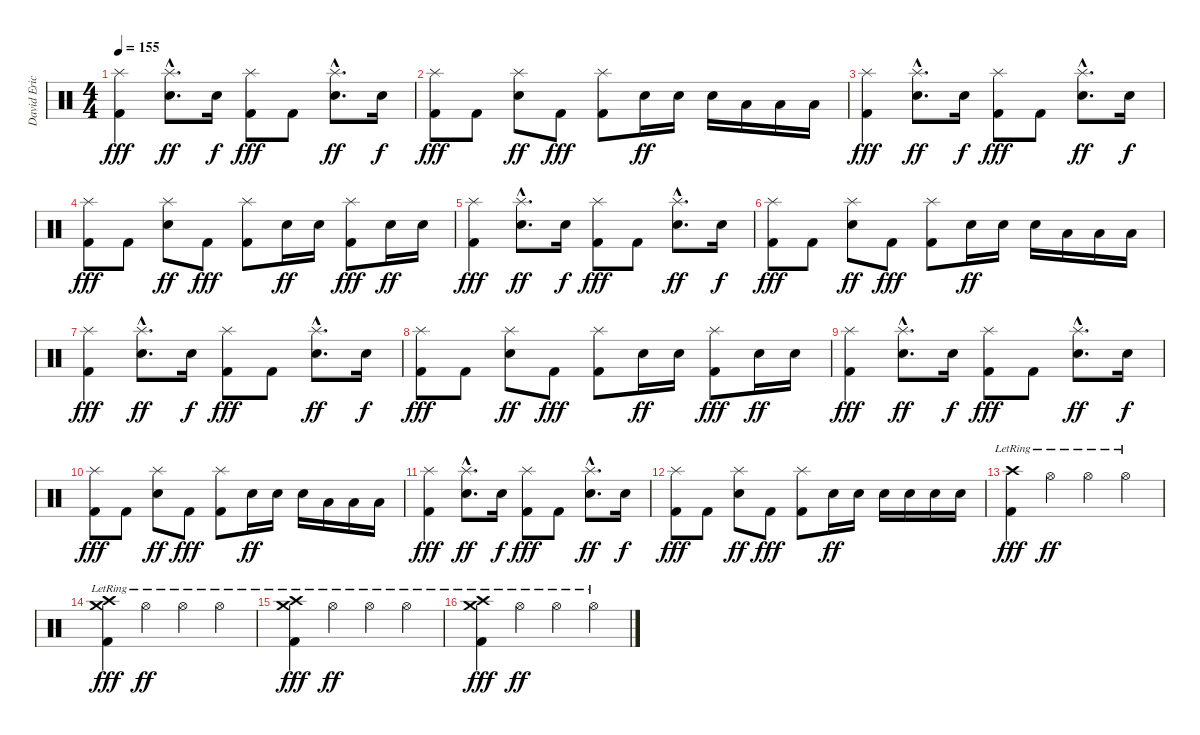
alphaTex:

\track ("David Eric Grohl" "David Eric") {instrument percussion}
\staff {score}
\articulation defaults
\ts (4 4)
\tempo 155
\clef neutral
\ks c
("Splash (hit)" "Kick (hit) 2").4{dy fff} ("Splash (hit)"{hac} "Electric Snare (hit)"{hac}).8{d dy ff} "Electric Snare (hit)".16{dy f} ("Splash (hit)" "Kick (hit) 2").8{dy fff} "Kick (hit) 2".8 ("Splash (hit)"{hac} "Electric Snare (hit)"{hac}).8{d dy ff} "Electric Snare (hit)".16{dy f} |
("Splash (hit)" "Kick (hit) 2").8{dy fff} "Kick (hit) 2".8 ("Splash (hit)" "Electric Snare (hit)").8{dy ff} "Kick (hit) 2".8{dy fff} ("Splash (hit)" "Kick (hit) 2").8 "Electric Snare (hit)".16{dy ff} "Electric Snare (hit)".16 "Electric Snare (hit)".16 "Low Tom (hit)".16 "Low Tom (hit)".16 "Low Tom (hit)".16 |
("Splash (hit)" "Kick (hit) 2").4{dy fff} ("Splash (hit)"{hac} "Electric Snare (hit)"{hac}).8{d dy ff} "Electric Snare (hit)".16{dy f} ("Splash (hit)" "Kick (hit) 2").8{dy fff} "Kick (hit) 2".8 ("Splash (hit)"{hac} "Electric Snare (hit)"{hac}).8{d dy ff} "Electric Snare (hit)".16{dy f} |
("Splash (hit)" "Kick (hit) 2").8{dy fff} "Kick (hit) 2".8 ("Splash (hit)" "Electric Snare (hit)").8{dy ff} "Kick (hit) 2".8{dy fff} ("Splash (hit)" "Kick (hit) 2").8 "Electric Snare (hit)".16{dy ff} "Electric Snare (hit)".16 ("Splash (hit)" "Kick (hit) 2").8{dy fff} "Electric Snare (hit)".16{dy ff} "Electric Snare (hit)".16 |
("Splash (hit)" "Kick (hit) 2").4{dy fff} ("Splash (hit)"{hac} "Electric Snare (hit)"{hac}).8{d dy ff} "Electric Snare (hit)".16{dy f} ("Splash (hit)" "Kick (hit) 2").8{dy fff} "Kick (hit) 2".8 ("Splash (hit)"{hac} "Electric Snare (hit)"{hac}).8{d dy ff} "Electric Snare (hit)".16{dy f} |
("Splash (hit)" "Kick (hit) 2").8{dy fff} "Kick (hit) 2".8 ("Splash (hit)" "Electric Snare (hit)").8{dy ff} "Kick (hit) 2".8{dy fff} ("Splash (hit)" "Kick (hit) 2").8 "Electric Snare (hit)".16{dy ff} "Electric Snare (hit)".16 "Electric Snare (hit)".16 "Low Tom (hit)".16 "Low Tom (hit)".16 "Low Tom (hit)".16 |
("Splash (hit)" "Kick (hit) 2").4{dy fff} ("Splash (hit)"{hac} "Electric Snare (hit)"{hac}).8{d dy ff} "Electric Snare (hit)".16{dy f} ("Splash (hit)" "Kick (hit) 2").8{dy fff} "Kick (hit) 2".8 ("Splash (hit)"{hac} "Electric Snare (hit)"{hac}).8{d dy ff} "Electric Snare (hit)".16{dy f} |
("Splash (hit)" "Kick (hit) 2").8{dy fff} "Kick (hit) 2".8 ("Splash (hit)" "Electric Snare (hit)").8{dy ff} "Kick (hit) 2".8{dy fff} ("Splash (hit)" "Kick (hit) 2").8 "Electric Snare (hit)".16{dy ff} "Electric Snare (hit)".16 ("Splash (hit)" "Kick (hit) 2").8{dy fff} "Electric Snare (hit)".16{dy ff} "Electric Snare (hit)".16 |
("Splash (hit)" "Kick (hit) 2").4{dy fff} ("Splash (hit)"{hac} "Electric Snare (hit)"{hac}).8{d dy ff} "Electric Snare (hit)".16{dy f} ("Splash (hit)" "Kick (hit) 2").8{dy fff} "Kick (hit) 2".8 ("Splash (hit)"{hac} "Electric Snare (hit)"{hac}).8{d dy ff} "Electric Snare (hit)".16{dy f} |
("Splash (hit)" "Kick (hit) 2").8{dy fff} "Kick (hit) 2".8 ("Splash (hit)" "Electric Snare (hit)").8{dy ff} "Kick (hit) 2".8{dy fff} ("Splash (hit)" "Kick (hit) 2").8 "Electric Snare (hit)".16{dy ff} "Electric Snare (hit)".16 "Electric Snare (hit)".16 "Low Tom (hit)".16 "Low Tom (hit)".16 "Low Tom (hit)".16 |
("Splash (hit)" "Kick (hit) 2").4{dy fff} ("Splash (hit)"{hac} "Electric Snare (hit)"{hac}).8{d dy ff} "Electric Snare (hit)".16{dy f} ("Splash (hit)" "Kick (hit) 2").8{dy fff} "Kick (hit) 2".8 ("Splash (hit)"{hac} "Electric Snare (hit)"{hac}).8{d dy ff} "Electric Snare (hit)".16{dy f} |
("Splash (hit)" "Kick (hit) 2").8{dy fff} "Kick (hit) 2".8 ("Splash (hit)" "Electric Snare (hit)").8{dy ff} "Kick (hit) 2".8{dy fff} ("Splash (hit)" "Kick (hit) 2").8 "Electric Snare (hit)".16{dy ff} "Electric Snare (hit)".16 "Electric Snare (hit)".16 "Electric Snare (hit)".16 "Electric Snare (hit)".16 "Electric Snare (hit)".16 |
("Crash high (hit)"{lr} "Kick (hit) 2").4{dy fff} "Hi-Hat (open)"{lr}.4{dy ff} "Hi-Hat (open)"{lr}.4 "Hi-Hat (open)"{lr}.4 |
("Crash medium (hit)"{lr} "Crash high (hit)"{lr} "Kick (hit) 2").4{dy fff} "Hi-Hat (open)"{lr}.4{dy ff} "Hi-Hat (open)"{lr}.4 "Hi-Hat (open)"{lr}.4 |
("Crash medium (hit)"{lr} "Crash high (hit)"{lr} "Kick (hit) 2").4{dy fff} "Hi-Hat (open)"{lr}.4{dy ff} "Hi-Hat (open)"{lr}.4 "Hi-Hat (open)"{lr}.4 |
("Crash medium (hit)"{lr} "Crash high (hit)"{lr} "Kick (hit) 2").4{dy fff} "Hi-Hat (open)"{lr}.4{dy ff} "Hi-Hat (open)"{lr}.4 "Hi-Hat (open)"{lr}.4
